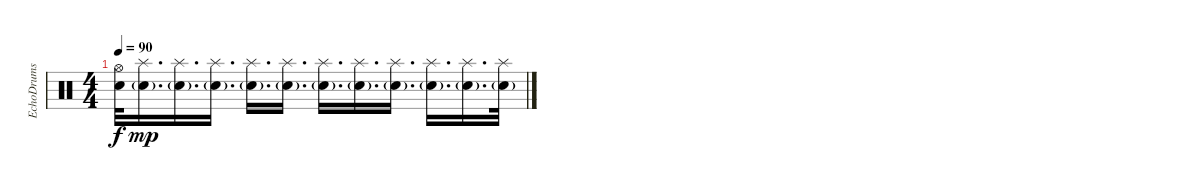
\track ("EchoDrums" "EchoDrums") {instrument percussion}
\staff {score}
\articulation defaults
\ts (4 4)
\tempo 90
\clef neutral
\ks c
("Hi-Hat (open)"{t} "Snare (hit)"{t}).32{dy f volume 0} ("Splash (hit)" "Electric Snare (hit)"{g}).16{d dy mp} ("Splash (hit)" "Electric Snare (hit)"{g}).16{d} ("Splash (hit)" "Electric Snare (hit)"{g}).16{d} ("Splash (hit)" "Electric Snare (hit)"{g}).16{d} ("Splash (hit)" "Electric Snare (hit)"{g}).16{d} ("Splash (hit)" "Electric Snare (hit)"{g}).16{d} ("Splash (hit)" "Electric Snare (hit)"{g}).16{d} ("Splash (hit)" "Electric Snare (hit)"{g}).16{d} ("Splash (hit)" "Electric Snare (hit)"{g}).16{d} ("Splash (hit)" "Electric Snare (hit)"{g}).16{d} ("Splash (hit)" "Electric Snare (hit)"{g}).32
